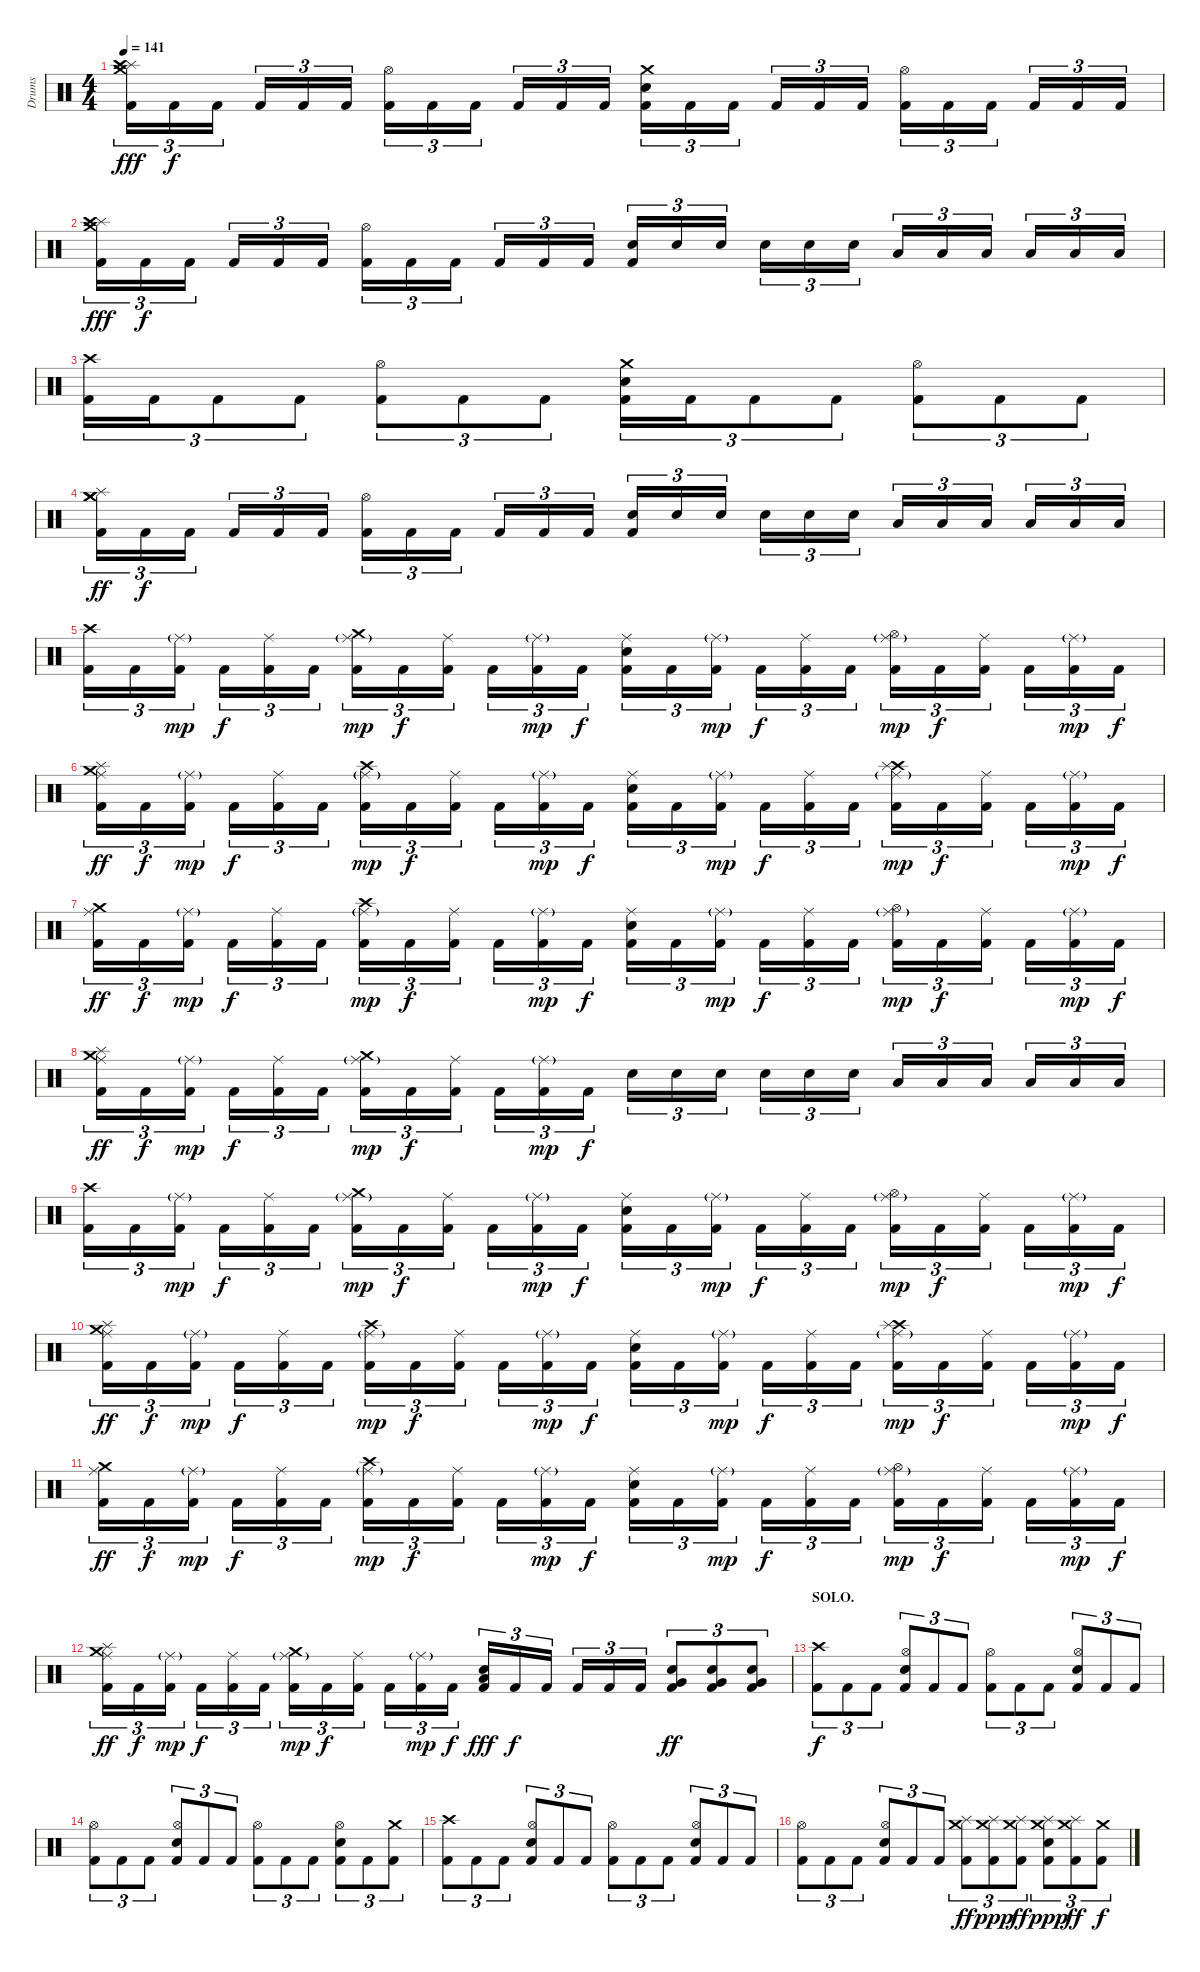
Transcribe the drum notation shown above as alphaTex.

\track ("Drums" "Drums") {instrument percussion}
\staff {score}
\articulation defaults
\ts (4 4)
\tempo 141
\clef neutral
\ks c
("Crash medium (hit)" "Splash (hit)" "Crash high (hit)" "Kick (hit) 2").16{tu (3 2) dy fff} "Kick (hit) 2".16{tu (3 2) dy f} "Kick (hit) 2".16{tu (3 2)} "Kick (hit) 2".16{tu (3 2)} "Kick (hit) 2".16{tu (3 2)} "Kick (hit) 2".16{tu (3 2)} ("Hi-Hat (open)" "Kick (hit) 2").16{tu (3 2)} "Kick (hit) 2".16{tu (3 2)} "Kick (hit) 2".16{tu (3 2)} "Kick (hit) 2".16{tu (3 2)} "Kick (hit) 2".16{tu (3 2)} "Kick (hit) 2".16{tu (3 2)} ("Crash medium (hit)" "Electric Snare (hit)" "Kick (hit) 2").16{tu (3 2)} "Kick (hit) 2".16{tu (3 2)} "Kick (hit) 2".16{tu (3 2)} "Kick (hit) 2".16{tu (3 2)} "Kick (hit) 2".16{tu (3 2)} "Kick (hit) 2".16{tu (3 2)} ("Hi-Hat (open)" "Kick (hit) 2").16{tu (3 2)} "Kick (hit) 2".16{tu (3 2)} "Kick (hit) 2".16{tu (3 2)} "Kick (hit) 2".16{tu (3 2)} "Kick (hit) 2".16{tu (3 2)} "Kick (hit) 2".16{tu (3 2)} |
("Crash medium (hit)" "Splash (hit)" "Crash high (hit)" "Kick (hit) 2").16{tu (3 2) dy fff} "Kick (hit) 2".16{tu (3 2) dy f} "Kick (hit) 2".16{tu (3 2)} "Kick (hit) 2".16{tu (3 2)} "Kick (hit) 2".16{tu (3 2)} "Kick (hit) 2".16{tu (3 2)} ("Hi-Hat (open)" "Kick (hit) 2").16{tu (3 2)} "Kick (hit) 2".16{tu (3 2)} "Kick (hit) 2".16{tu (3 2)} "Kick (hit) 2".16{tu (3 2)} "Kick (hit) 2".16{tu (3 2)} "Kick (hit) 2".16{tu (3 2)} ("Electric Snare (hit)" "Kick (hit) 2").16{tu (3 2)} "Electric Snare (hit)".16{tu (3 2)} "Electric Snare (hit)".16{tu (3 2)} "Electric Snare (hit)".16{tu (3 2)} "Electric Snare (hit)".16{tu (3 2)} "Electric Snare (hit)".16{tu (3 2)} "Low Tom (hit)".16{tu (3 2)} "Low Tom (hit)".16{tu (3 2)} "Low Tom (hit)".16{tu (3 2)} "Low Tom (hit)".16{tu (3 2)} "Low Tom (hit)".16{tu (3 2)} "Low Tom (hit)".16{tu (3 2)} |
("Crash high (hit)" "Kick (hit) 2").16{tu (3 2)} "Kick (hit) 2".16{tu (3 2)} "Kick (hit) 2".8{tu (3 2)} "Kick (hit) 2".8{tu (3 2)} ("Hi-Hat (open)" "Kick (hit) 2").8{tu (3 2)} "Kick (hit) 2".8{tu (3 2)} "Kick (hit) 2".8{tu (3 2)} ("Crash medium (hit)" "Electric Snare (hit)" "Kick (hit) 2").16{tu (3 2)} "Kick (hit) 2".16{tu (3 2)} "Kick (hit) 2".8{tu (3 2)} "Kick (hit) 2".8{tu (3 2)} ("Hi-Hat (open)" "Kick (hit) 2").8{tu (3 2)} "Kick (hit) 2".8{tu (3 2)} "Kick (hit) 2".8{tu (3 2)} |
("Crash medium (hit)" "Splash (hit)" "Crash medium (hit)" "Kick (hit) 2").16{tu (3 2) dy ff} "Kick (hit) 2".16{tu (3 2) dy f} "Kick (hit) 2".16{tu (3 2)} "Kick (hit) 2".16{tu (3 2)} "Kick (hit) 2".16{tu (3 2)} "Kick (hit) 2".16{tu (3 2)} ("Hi-Hat (open)" "Kick (hit) 2").16{tu (3 2)} "Kick (hit) 2".16{tu (3 2)} "Kick (hit) 2".16{tu (3 2)} "Kick (hit) 2".16{tu (3 2)} "Kick (hit) 2".16{tu (3 2)} "Kick (hit) 2".16{tu (3 2)} ("Electric Snare (hit)" "Kick (hit) 2").16{tu (3 2)} "Electric Snare (hit)".16{tu (3 2)} "Electric Snare (hit)".16{tu (3 2)} "Electric Snare (hit)".16{tu (3 2)} "Electric Snare (hit)".16{tu (3 2)} "Electric Snare (hit)".16{tu (3 2)} "Low Tom (hit)".16{tu (3 2)} "Low Tom (hit)".16{tu (3 2)} "Low Tom (hit)".16{tu (3 2)} "Low Tom (hit)".16{tu (3 2)} "Low Tom (hit)".16{tu (3 2)} "Low Tom (hit)".16{tu (3 2)} |
("Crash high (hit)" "Kick (hit) 2").16{tu (3 2)} "Kick (hit) 2".16{tu (3 2)} ("Ride (middle)"{g} "Kick (hit) 2").16{tu (3 2) dy mp} "Kick (hit) 2".16{tu (3 2) dy f} ("Ride (middle)" "Kick (hit) 2").16{tu (3 2)} "Kick (hit) 2".16{tu (3 2)} ("Crash medium (hit)" "Ride (middle)"{g} "Kick (hit) 2").16{tu (3 2) dy mp} "Kick (hit) 2".16{tu (3 2) dy f} ("Ride (middle)" "Kick (hit) 2").16{tu (3 2)} "Kick (hit) 2".16{tu (3 2)} ("Ride (middle)"{g} "Kick (hit) 2").16{tu (3 2) dy mp} "Kick (hit) 2".16{tu (3 2) dy f} ("Ride (middle)" "Electric Snare (hit)" "Kick (hit) 2").16{tu (3 2)} "Kick (hit) 2".16{tu (3 2)} ("Ride (middle)"{g} "Kick (hit) 2").16{tu (3 2) dy mp} "Kick (hit) 2".16{tu (3 2) dy f} ("Ride (middle)" "Kick (hit) 2").16{tu (3 2)} "Kick (hit) 2".16{tu (3 2)} ("Hi-Hat (open)" "Ride (middle)"{g} "Kick (hit) 2").16{tu (3 2) dy mp} "Kick (hit) 2".16{tu (3 2) dy f} ("Ride (middle)" "Kick (hit) 2").16{tu (3 2)} "Kick (hit) 2".16{tu (3 2)} ("Ride (middle)"{g} "Kick (hit) 2").16{tu (3 2) dy mp} "Kick (hit) 2".16{tu (3 2) dy f} |
("Crash medium (hit)" "Splash (hit)" "Ride (middle)" "Kick (hit) 2").16{tu (3 2) dy ff} "Kick (hit) 2".16{tu (3 2) dy f} ("Ride (middle)"{g} "Kick (hit) 2").16{tu (3 2) dy mp} "Kick (hit) 2".16{tu (3 2) dy f} ("Ride (middle)" "Kick (hit) 2").16{tu (3 2)} "Kick (hit) 2".16{tu (3 2)} ("Crash high (hit)" "Ride (middle)"{g} "Kick (hit) 2").16{tu (3 2) dy mp} "Kick (hit) 2".16{tu (3 2) dy f} ("Ride (middle)" "Kick (hit) 2").16{tu (3 2)} "Kick (hit) 2".16{tu (3 2)} ("Ride (middle)"{g} "Kick (hit) 2").16{tu (3 2) dy mp} "Kick (hit) 2".16{tu (3 2) dy f} ("Ride (middle)" "Electric Snare (hit)" "Kick (hit) 2").16{tu (3 2)} "Kick (hit) 2".16{tu (3 2)} ("Ride (middle)"{g} "Kick (hit) 2").16{tu (3 2) dy mp} "Kick (hit) 2".16{tu (3 2) dy f} ("Ride (middle)" "Kick (hit) 2").16{tu (3 2)} "Kick (hit) 2".16{tu (3 2)} ("Crash high (hit)" "Splash (hit)" "Ride (middle)"{g} "Kick (hit) 2").16{tu (3 2) dy mp} "Kick (hit) 2".16{tu (3 2) dy f} ("Ride (middle)" "Kick (hit) 2").16{tu (3 2)} "Kick (hit) 2".16{tu (3 2)} ("Ride (middle)"{g} "Kick (hit) 2").16{tu (3 2) dy mp} "Kick (hit) 2".16{tu (3 2) dy f} |
("Crash medium (hit)" "Ride (middle)" "Kick (hit) 2").16{tu (3 2) dy ff} "Kick (hit) 2".16{tu (3 2) dy f} ("Ride (middle)"{g} "Kick (hit) 2").16{tu (3 2) dy mp} "Kick (hit) 2".16{tu (3 2) dy f} ("Ride (middle)" "Kick (hit) 2").16{tu (3 2)} "Kick (hit) 2".16{tu (3 2)} ("Crash high (hit)" "Ride (middle)"{g} "Kick (hit) 2").16{tu (3 2) dy mp} "Kick (hit) 2".16{tu (3 2) dy f} ("Ride (middle)" "Kick (hit) 2").16{tu (3 2)} "Kick (hit) 2".16{tu (3 2)} ("Ride (middle)"{g} "Kick (hit) 2").16{tu (3 2) dy mp} "Kick (hit) 2".16{tu (3 2) dy f} ("Ride (middle)" "Electric Snare (hit)" "Kick (hit) 2").16{tu (3 2)} "Kick (hit) 2".16{tu (3 2)} ("Ride (middle)"{g} "Kick (hit) 2").16{tu (3 2) dy mp} "Kick (hit) 2".16{tu (3 2) dy f} ("Ride (middle)" "Kick (hit) 2").16{tu (3 2)} "Kick (hit) 2".16{tu (3 2)} ("Hi-Hat (open)" "Ride (middle)"{g} "Kick (hit) 2").16{tu (3 2) dy mp} "Kick (hit) 2".16{tu (3 2) dy f} ("Ride (middle)" "Kick (hit) 2").16{tu (3 2)} "Kick (hit) 2".16{tu (3 2)} ("Ride (middle)"{g} "Kick (hit) 2").16{tu (3 2) dy mp} "Kick (hit) 2".16{tu (3 2) dy f} |
("Crash medium (hit)" "Splash (hit)" "Ride (middle)" "Kick (hit) 2").16{tu (3 2) dy ff} "Kick (hit) 2".16{tu (3 2) dy f} ("Ride (middle)"{g} "Kick (hit) 2").16{tu (3 2) dy mp} "Kick (hit) 2".16{tu (3 2) dy f} ("Ride (middle)" "Kick (hit) 2").16{tu (3 2)} "Kick (hit) 2".16{tu (3 2)} ("Crash medium (hit)" "Ride (middle)"{g} "Kick (hit) 2").16{tu (3 2) dy mp} "Kick (hit) 2".16{tu (3 2) dy f} ("Ride (middle)" "Kick (hit) 2").16{tu (3 2)} "Kick (hit) 2".16{tu (3 2)} ("Ride (middle)"{g} "Kick (hit) 2").16{tu (3 2) dy mp} "Kick (hit) 2".16{tu (3 2) dy f} "Electric Snare (hit)".16{tu (3 2)} "Electric Snare (hit)".16{tu (3 2)} "Electric Snare (hit)".16{tu (3 2)} "Electric Snare (hit)".16{tu (3 2)} "Electric Snare (hit)".16{tu (3 2)} "Electric Snare (hit)".16{tu (3 2)} "Low Tom (hit)".16{tu (3 2)} "Low Tom (hit)".16{tu (3 2)} "Low Tom (hit)".16{tu (3 2)} "Low Tom (hit)".16{tu (3 2)} "Low Tom (hit)".16{tu (3 2)} "Low Tom (hit)".16{tu (3 2)} |
("Crash high (hit)" "Kick (hit) 2").16{tu (3 2)} "Kick (hit) 2".16{tu (3 2)} ("Ride (middle)"{g} "Kick (hit) 2").16{tu (3 2) dy mp} "Kick (hit) 2".16{tu (3 2) dy f} ("Ride (middle)" "Kick (hit) 2").16{tu (3 2)} "Kick (hit) 2".16{tu (3 2)} ("Crash medium (hit)" "Ride (middle)"{g} "Kick (hit) 2").16{tu (3 2) dy mp} "Kick (hit) 2".16{tu (3 2) dy f} ("Ride (middle)" "Kick (hit) 2").16{tu (3 2)} "Kick (hit) 2".16{tu (3 2)} ("Ride (middle)"{g} "Kick (hit) 2").16{tu (3 2) dy mp} "Kick (hit) 2".16{tu (3 2) dy f} ("Ride (middle)" "Electric Snare (hit)" "Kick (hit) 2").16{tu (3 2)} "Kick (hit) 2".16{tu (3 2)} ("Ride (middle)"{g} "Kick (hit) 2").16{tu (3 2) dy mp} "Kick (hit) 2".16{tu (3 2) dy f} ("Ride (middle)" "Kick (hit) 2").16{tu (3 2)} "Kick (hit) 2".16{tu (3 2)} ("Hi-Hat (open)" "Ride (middle)"{g} "Kick (hit) 2").16{tu (3 2) dy mp} "Kick (hit) 2".16{tu (3 2) dy f} ("Ride (middle)" "Kick (hit) 2").16{tu (3 2)} "Kick (hit) 2".16{tu (3 2)} ("Ride (middle)"{g} "Kick (hit) 2").16{tu (3 2) dy mp} "Kick (hit) 2".16{tu (3 2) dy f} |
("Crash medium (hit)" "Splash (hit)" "Ride (middle)" "Kick (hit) 2").16{tu (3 2) dy ff} "Kick (hit) 2".16{tu (3 2) dy f} ("Ride (middle)"{g} "Kick (hit) 2").16{tu (3 2) dy mp} "Kick (hit) 2".16{tu (3 2) dy f} ("Ride (middle)" "Kick (hit) 2").16{tu (3 2)} "Kick (hit) 2".16{tu (3 2)} ("Crash high (hit)" "Ride (middle)"{g} "Kick (hit) 2").16{tu (3 2) dy mp} "Kick (hit) 2".16{tu (3 2) dy f} ("Ride (middle)" "Kick (hit) 2").16{tu (3 2)} "Kick (hit) 2".16{tu (3 2)} ("Ride (middle)"{g} "Kick (hit) 2").16{tu (3 2) dy mp} "Kick (hit) 2".16{tu (3 2) dy f} ("Ride (middle)" "Electric Snare (hit)" "Kick (hit) 2").16{tu (3 2)} "Kick (hit) 2".16{tu (3 2)} ("Ride (middle)"{g} "Kick (hit) 2").16{tu (3 2) dy mp} "Kick (hit) 2".16{tu (3 2) dy f} ("Ride (middle)" "Kick (hit) 2").16{tu (3 2)} "Kick (hit) 2".16{tu (3 2)} ("Crash high (hit)" "Splash (hit)" "Ride (middle)"{g} "Kick (hit) 2").16{tu (3 2) dy mp} "Kick (hit) 2".16{tu (3 2) dy f} ("Ride (middle)" "Kick (hit) 2").16{tu (3 2)} "Kick (hit) 2".16{tu (3 2)} ("Ride (middle)"{g} "Kick (hit) 2").16{tu (3 2) dy mp} "Kick (hit) 2".16{tu (3 2) dy f} |
("Crash medium (hit)" "Ride (middle)" "Kick (hit) 2").16{tu (3 2) dy ff} "Kick (hit) 2".16{tu (3 2) dy f} ("Ride (middle)"{g} "Kick (hit) 2").16{tu (3 2) dy mp} "Kick (hit) 2".16{tu (3 2) dy f} ("Ride (middle)" "Kick (hit) 2").16{tu (3 2)} "Kick (hit) 2".16{tu (3 2)} ("Crash high (hit)" "Ride (middle)"{g} "Kick (hit) 2").16{tu (3 2) dy mp} "Kick (hit) 2".16{tu (3 2) dy f} ("Ride (middle)" "Kick (hit) 2").16{tu (3 2)} "Kick (hit) 2".16{tu (3 2)} ("Ride (middle)"{g} "Kick (hit) 2").16{tu (3 2) dy mp} "Kick (hit) 2".16{tu (3 2) dy f} ("Ride (middle)" "Electric Snare (hit)" "Kick (hit) 2").16{tu (3 2)} "Kick (hit) 2".16{tu (3 2)} ("Ride (middle)"{g} "Kick (hit) 2").16{tu (3 2) dy mp} "Kick (hit) 2".16{tu (3 2) dy f} ("Ride (middle)" "Kick (hit) 2").16{tu (3 2)} "Kick (hit) 2".16{tu (3 2)} ("Hi-Hat (open)" "Ride (middle)"{g} "Kick (hit) 2").16{tu (3 2) dy mp} "Kick (hit) 2".16{tu (3 2) dy f} ("Ride (middle)" "Kick (hit) 2").16{tu (3 2)} "Kick (hit) 2".16{tu (3 2)} ("Ride (middle)"{g} "Kick (hit) 2").16{tu (3 2) dy mp} "Kick (hit) 2".16{tu (3 2) dy f} |
("Crash medium (hit)" "Splash (hit)" "Ride (middle)" "Kick (hit) 2").16{tu (3 2) dy ff} "Kick (hit) 2".16{tu (3 2) dy f} ("Ride (middle)"{g} "Kick (hit) 2").16{tu (3 2) dy mp} "Kick (hit) 2".16{tu (3 2) dy f} ("Ride (middle)" "Kick (hit) 2").16{tu (3 2)} "Kick (hit) 2".16{tu (3 2)} ("Crash medium (hit)" "Ride (middle)"{g} "Kick (hit) 2").16{tu (3 2) dy mp} "Kick (hit) 2".16{tu (3 2) dy f} ("Ride (middle)" "Kick (hit) 2").16{tu (3 2)} "Kick (hit) 2".16{tu (3 2)} ("Ride (middle)"{g} "Kick (hit) 2").16{tu (3 2) dy mp} "Kick (hit) 2".16{tu (3 2) dy f} ("Low Floor Tom (hit)" "Electric Snare (hit)" "Kick (hit) 2").16{tu (3 2) dy fff} "Kick (hit) 2".16{tu (3 2) dy f} "Kick (hit) 2".16{tu (3 2)} "Kick (hit) 2".16{tu (3 2)} "Kick (hit) 2".16{tu (3 2)} "Kick (hit) 2".16{tu (3 2)} ("Very Low Tom (hit)" "Electric Snare (hit)" "Kick (hit) 2").8{tu (3 2) dy ff} ("Very Low Tom (hit)" "Electric Snare (hit)" "Kick (hit) 2").8{tu (3 2)} ("Very Low Tom (hit)" "Electric Snare (hit)" "Kick (hit) 2").8{tu (3 2)} |
\section ("" "SOLO.")
("Crash high (hit)" "Kick (hit) 2").8{tu (3 2) dy f} "Kick (hit) 2".8{tu (3 2)} "Kick (hit) 2".8{tu (3 2)} ("Hi-Hat (open)" "Electric Snare (hit)" "Kick (hit) 2").8{tu (3 2)} "Kick (hit) 2".8{tu (3 2)} "Kick (hit) 2".8{tu (3 2)} ("Hi-Hat (open)" "Kick (hit) 2").8{tu (3 2)} "Kick (hit) 2".8{tu (3 2)} "Kick (hit) 2".8{tu (3 2)} ("Hi-Hat (open)" "Electric Snare (hit)" "Kick (hit) 2").8{tu (3 2)} "Kick (hit) 2".8{tu (3 2)} "Kick (hit) 2".8{tu (3 2)} |
("Hi-Hat (open)" "Kick (hit) 2").8{tu (3 2)} "Kick (hit) 2".8{tu (3 2)} "Kick (hit) 2".8{tu (3 2)} ("Hi-Hat (open)" "Electric Snare (hit)" "Kick (hit) 2").8{tu (3 2)} "Kick (hit) 2".8{tu (3 2)} "Kick (hit) 2".8{tu (3 2)} ("Hi-Hat (open)" "Kick (hit) 2").8{tu (3 2)} "Kick (hit) 2".8{tu (3 2)} "Kick (hit) 2".8{tu (3 2)} ("Hi-Hat (open)" "Electric Snare (hit)" "Kick (hit) 2").8{tu (3 2)} "Kick (hit) 2".8{tu (3 2)} ("Crash medium (hit)" "Kick (hit) 2").8{tu (3 2)} |
("Crash high (hit)" "Kick (hit) 2").8{tu (3 2)} "Kick (hit) 2".8{tu (3 2)} "Kick (hit) 2".8{tu (3 2)} ("Hi-Hat (open)" "Electric Snare (hit)" "Kick (hit) 2").8{tu (3 2)} "Kick (hit) 2".8{tu (3 2)} "Kick (hit) 2".8{tu (3 2)} ("Hi-Hat (open)" "Kick (hit) 2").8{tu (3 2)} "Kick (hit) 2".8{tu (3 2)} "Kick (hit) 2".8{tu (3 2)} ("Hi-Hat (open)" "Electric Snare (hit)" "Kick (hit) 2").8{tu (3 2)} "Kick (hit) 2".8{tu (3 2)} "Kick (hit) 2".8{tu (3 2)} |
("Hi-Hat (open)" "Kick (hit) 2").8{tu (3 2)} "Kick (hit) 2".8{tu (3 2)} "Kick (hit) 2".8{tu (3 2)} ("Hi-Hat (open)" "Electric Snare (hit)" "Kick (hit) 2").8{tu (3 2)} "Kick (hit) 2".8{tu (3 2)} "Kick (hit) 2".8{tu (3 2)} ("Crash medium (hit)" "Splash (hit)" "Kick (hit) 2").8{tu (3 2) dy ff} ("Crash medium (hit)" "Splash (hit)" "Kick (hit) 2").8{tu (3 2) dy ppp} ("Crash medium (hit)" "Splash (hit)" "Kick (hit) 2").8{tu (3 2) dy ff} ("Crash medium (hit)" "Splash (hit)" "Electric Snare (hit)" "Kick (hit) 2").8{tu (3 2) dy ppp} ("Crash medium (hit)" "Splash (hit)" "Kick (hit) 2").8{tu (3 2) dy ff} ("Crash medium (hit)" "Kick (hit) 2").8{tu (3 2) dy f}
